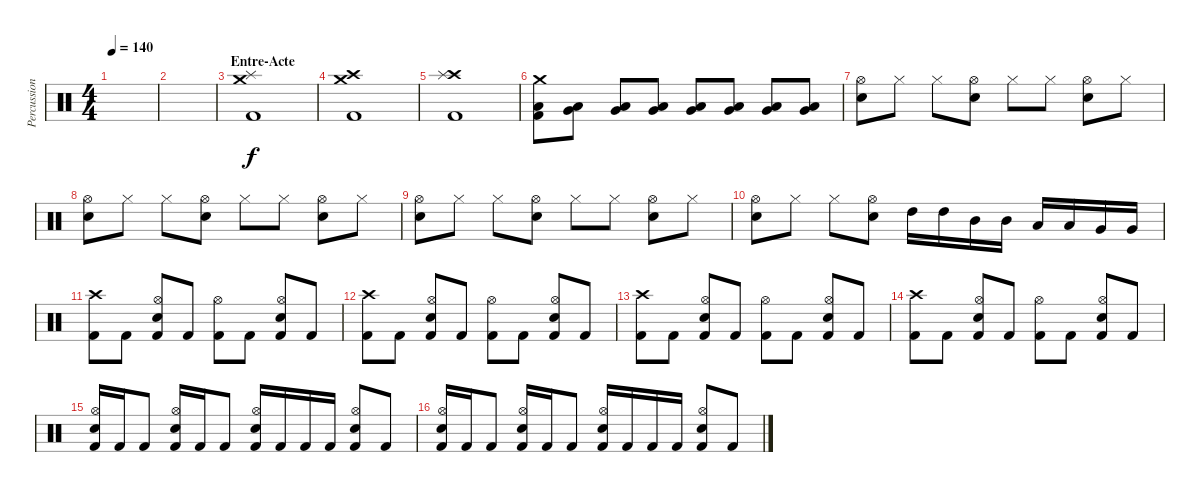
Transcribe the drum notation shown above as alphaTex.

\track ("Percussions" "Percussion") {instrument percussion}
\staff {score}
\articulation defaults
\ts (4 4)
\tempo 140
\clef neutral
\ks c
|
|
\section ("" "Entre-Acte")
("Crash medium (hit)" "Splash (hit)" "Kick (hit) 2").1 |
("Crash high (hit)" "Crash medium (hit)" "Kick (hit) 2").1 |
("Crash high (hit)" "Splash (hit)" "Kick (hit) 2").1 |
("Crash medium (hit)" "Low Tom (hit)" "Kick (hit) 2").8 ("Low Tom (hit)" "Very Low Tom (hit)").8 ("Low Tom (hit)" "Very Low Tom (hit)").8 ("Low Tom (hit)" "Very Low Tom (hit)").8 ("Low Tom (hit)" "Very Low Tom (hit)").8 ("Low Tom (hit)" "Very Low Tom (hit)").8 ("Low Tom (hit)" "Very Low Tom (hit)").8 ("Low Tom (hit)" "Very Low Tom (hit)").8 |
("Hi-Hat (open)" "Electric Snare (hit)").8 "Hi-Hat (closed)".8 "Hi-Hat (closed)".8 ("Hi-Hat (open)" "Electric Snare (hit)").8 "Hi-Hat (closed)".8 "Hi-Hat (closed)".8 ("Hi-Hat (open)" "Electric Snare (hit)").8 "Hi-Hat (closed)".8 |
("Hi-Hat (open)" "Electric Snare (hit)").8 "Hi-Hat (closed)".8 "Hi-Hat (closed)".8 ("Hi-Hat (open)" "Electric Snare (hit)").8 "Hi-Hat (closed)".8 "Hi-Hat (closed)".8 ("Hi-Hat (open)" "Electric Snare (hit)").8 "Hi-Hat (closed)".8 |
("Hi-Hat (open)" "Electric Snare (hit)").8 "Hi-Hat (closed)".8 "Hi-Hat (closed)".8 ("Hi-Hat (open)" "Electric Snare (hit)").8 "Hi-Hat (closed)".8 "Hi-Hat (closed)".8 ("Hi-Hat (open)" "Electric Snare (hit)").8 "Hi-Hat (closed)".8 |
("Hi-Hat (open)" "Electric Snare (hit)").8 "Hi-Hat (closed)".8 "Hi-Hat (closed)".8 ("Hi-Hat (open)" "Electric Snare (hit)").8 "High Tom (hit)".16 "High Tom (hit)".16 "Mid Tom (hit)".16 "Mid Tom (hit)".16 "Low Tom (hit)".16 "Low Tom (hit)".16 "Very Low Tom (hit)".16 "Very Low Tom (hit)".16 |
("Crash high (hit)" "Kick (hit) 2").8 "Kick (hit) 2".8 ("Hi-Hat (open)" "Snare (hit) 2" "Kick (hit) 2").8 "Kick (hit) 2".8 ("Hi-Hat (open)" "Kick (hit) 2").8 "Kick (hit) 2".8 ("Hi-Hat (open)" "Snare (hit) 2" "Kick (hit) 2").8 "Kick (hit) 2".8 |
("Crash high (hit)" "Kick (hit) 2").8 "Kick (hit) 2".8 ("Hi-Hat (open)" "Snare (hit) 2" "Kick (hit) 2").8 "Kick (hit) 2".8 ("Hi-Hat (open)" "Kick (hit) 2").8 "Kick (hit) 2".8 ("Hi-Hat (open)" "Snare (hit) 2" "Kick (hit) 2").8 "Kick (hit) 2".8 |
("Crash high (hit)" "Kick (hit) 2").8 "Kick (hit) 2".8 ("Hi-Hat (open)" "Snare (hit) 2" "Kick (hit) 2").8 "Kick (hit) 2".8 ("Hi-Hat (open)" "Kick (hit) 2").8 "Kick (hit) 2".8 ("Hi-Hat (open)" "Snare (hit) 2" "Kick (hit) 2").8 "Kick (hit) 2".8 |
("Crash high (hit)" "Kick (hit) 2").8 "Kick (hit) 2".8 ("Hi-Hat (open)" "Snare (hit) 2" "Kick (hit) 2").8 "Kick (hit) 2".8 ("Hi-Hat (open)" "Kick (hit) 2").8 "Kick (hit) 2".8 ("Hi-Hat (open)" "Snare (hit) 2" "Kick (hit) 2").8 "Kick (hit) 2".8 |
("Hi-Hat (open)" "Snare (hit) 2" "Kick (hit) 2").16 "Kick (hit) 2".16 "Kick (hit) 2".8 ("Hi-Hat (open)" "Snare (hit) 2" "Kick (hit) 2").16 "Kick (hit) 2".16 "Kick (hit) 2".8 ("Hi-Hat (open)" "Snare (hit) 2" "Kick (hit) 2").16 "Kick (hit) 2".16 "Kick (hit) 2".16 "Kick (hit) 2".16 ("Hi-Hat (open)" "Snare (hit) 2" "Kick (hit) 2").8 "Kick (hit) 2".8 |
("Hi-Hat (open)" "Snare (hit) 2" "Kick (hit) 2").16 "Kick (hit) 2".16 "Kick (hit) 2".8 ("Hi-Hat (open)" "Snare (hit) 2" "Kick (hit) 2").16 "Kick (hit) 2".16 "Kick (hit) 2".8 ("Hi-Hat (open)" "Snare (hit) 2" "Kick (hit) 2").16 "Kick (hit) 2".16 "Kick (hit) 2".16 "Kick (hit) 2".16 ("Hi-Hat (open)" "Snare (hit) 2" "Kick (hit) 2").8 "Kick (hit) 2".8
